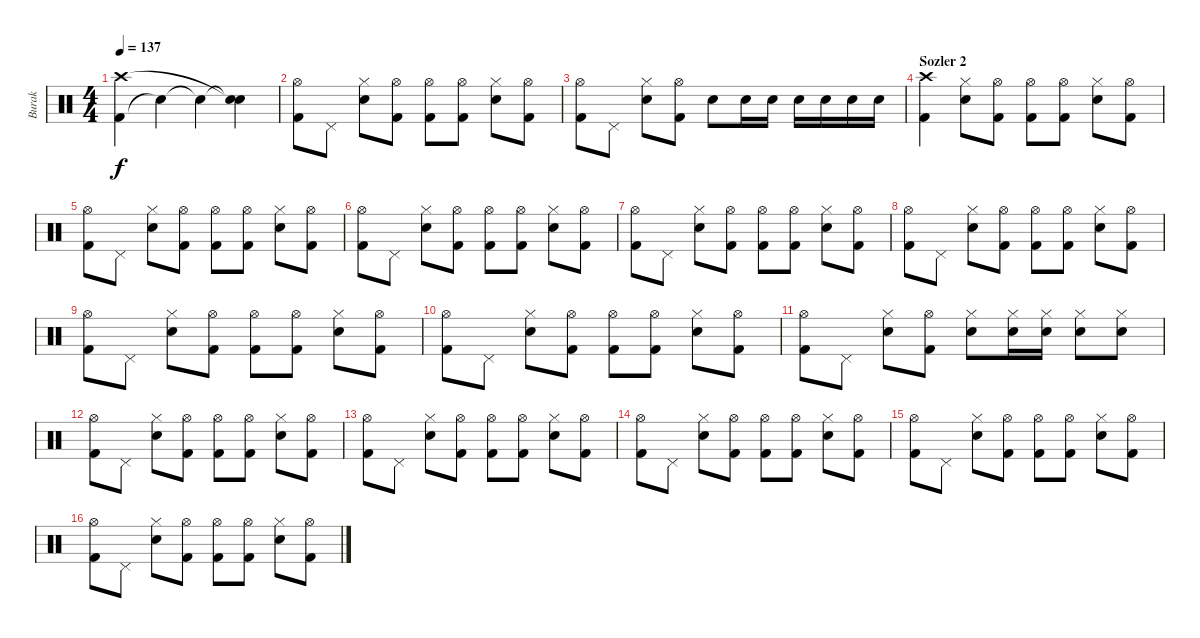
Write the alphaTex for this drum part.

\track ("Burak" "Burak") {instrument percussion}
\staff {score}
\articulation defaults
\ts (4 4)
\tempo 137
\clef neutral
\ks c
("Kick (hit) 2" "Crash high (hit)").4{dy f} "Snare (hit)"{t}.4 "Snare (hit)"{t}.4 ("Snare (hit)"{t} "Snare (hit)"{t}).4 |
("Kick (hit) 2" "Hi-Hat (open)").8 "Pedal Hi-Hat (hit)".8 ("Electric Snare (hit)" "Hi-Hat (closed)").8 ("Kick (hit) 2" "Hi-Hat (open)").8 ("Kick (hit) 2" "Hi-Hat (open)").8 ("Kick (hit) 2" "Hi-Hat (open)").8 ("Electric Snare (hit)" "Hi-Hat (closed)").8 ("Kick (hit) 2" "Hi-Hat (open)").8 |
("Kick (hit) 2" "Hi-Hat (open)").8 "Pedal Hi-Hat (hit)".8 ("Electric Snare (hit)" "Hi-Hat (closed)").8 ("Kick (hit) 2" "Hi-Hat (open)").8 "Electric Snare (hit)".8 "Electric Snare (hit)".16 "Electric Snare (hit)".16 "Electric Snare (hit)".16 "Electric Snare (hit)".16 "Electric Snare (hit)".16 "Electric Snare (hit)".16 |
\section ("" "Sozler 2")
("Kick (hit) 2" "Crash high (hit)").4 ("Electric Snare (hit)" "Hi-Hat (closed)").8 ("Kick (hit) 2" "Hi-Hat (open)").8 ("Kick (hit) 2" "Hi-Hat (open)").8 ("Kick (hit) 2" "Hi-Hat (open)").8 ("Electric Snare (hit)" "Hi-Hat (closed)").8 ("Kick (hit) 2" "Hi-Hat (open)").8 |
("Kick (hit) 2" "Hi-Hat (open)").8 "Pedal Hi-Hat (hit)".8 ("Electric Snare (hit)" "Hi-Hat (closed)").8 ("Kick (hit) 2" "Hi-Hat (open)").8 ("Kick (hit) 2" "Hi-Hat (open)").8 ("Kick (hit) 2" "Hi-Hat (open)").8 ("Electric Snare (hit)" "Hi-Hat (closed)").8 ("Kick (hit) 2" "Hi-Hat (open)").8 |
("Kick (hit) 2" "Hi-Hat (open)").8 "Pedal Hi-Hat (hit)".8 ("Electric Snare (hit)" "Hi-Hat (closed)").8 ("Kick (hit) 2" "Hi-Hat (open)").8 ("Kick (hit) 2" "Hi-Hat (open)").8 ("Kick (hit) 2" "Hi-Hat (open)").8 ("Electric Snare (hit)" "Hi-Hat (closed)").8 ("Kick (hit) 2" "Hi-Hat (open)").8 |
("Kick (hit) 2" "Hi-Hat (open)").8 "Pedal Hi-Hat (hit)".8 ("Electric Snare (hit)" "Hi-Hat (closed)").8 ("Kick (hit) 2" "Hi-Hat (open)").8 ("Kick (hit) 2" "Hi-Hat (open)").8 ("Kick (hit) 2" "Hi-Hat (open)").8 ("Electric Snare (hit)" "Hi-Hat (closed)").8 ("Kick (hit) 2" "Hi-Hat (open)").8 |
("Kick (hit) 2" "Hi-Hat (open)").8 "Pedal Hi-Hat (hit)".8 ("Electric Snare (hit)" "Hi-Hat (closed)").8 ("Kick (hit) 2" "Hi-Hat (open)").8 ("Kick (hit) 2" "Hi-Hat (open)").8 ("Kick (hit) 2" "Hi-Hat (open)").8 ("Electric Snare (hit)" "Hi-Hat (closed)").8 ("Kick (hit) 2" "Hi-Hat (open)").8 |
("Kick (hit) 2" "Hi-Hat (open)").8 "Pedal Hi-Hat (hit)".8 ("Electric Snare (hit)" "Hi-Hat (closed)").8 ("Kick (hit) 2" "Hi-Hat (open)").8 ("Kick (hit) 2" "Hi-Hat (open)").8 ("Kick (hit) 2" "Hi-Hat (open)").8 ("Electric Snare (hit)" "Hi-Hat (closed)").8 ("Kick (hit) 2" "Hi-Hat (open)").8 |
("Kick (hit) 2" "Hi-Hat (open)").8 "Pedal Hi-Hat (hit)".8 ("Electric Snare (hit)" "Hi-Hat (closed)").8 ("Kick (hit) 2" "Hi-Hat (open)").8 ("Kick (hit) 2" "Hi-Hat (open)").8 ("Kick (hit) 2" "Hi-Hat (open)").8 ("Electric Snare (hit)" "Hi-Hat (closed)").8 ("Kick (hit) 2" "Hi-Hat (open)").8 |
("Kick (hit) 2" "Hi-Hat (open)").8 "Pedal Hi-Hat (hit)".8 ("Electric Snare (hit)" "Hi-Hat (closed)").8 ("Kick (hit) 2" "Hi-Hat (open)").8 ("Electric Snare (hit)" "Hi-Hat (closed)").8 ("Electric Snare (hit)" "Hi-Hat (closed)").16 ("Electric Snare (hit)" "Hi-Hat (closed)").16 ("Electric Snare (hit)" "Hi-Hat (closed)").8 ("Electric Snare (hit)" "Hi-Hat (closed)").8 |
("Kick (hit) 2" "Hi-Hat (open)").8 "Pedal Hi-Hat (hit)".8 ("Electric Snare (hit)" "Hi-Hat (closed)").8 ("Kick (hit) 2" "Hi-Hat (open)").8 ("Kick (hit) 2" "Hi-Hat (open)").8 ("Kick (hit) 2" "Hi-Hat (open)").8 ("Electric Snare (hit)" "Hi-Hat (closed)").8 ("Kick (hit) 2" "Hi-Hat (open)").8 |
("Kick (hit) 2" "Hi-Hat (open)").8 "Pedal Hi-Hat (hit)".8 ("Electric Snare (hit)" "Hi-Hat (closed)").8 ("Kick (hit) 2" "Hi-Hat (open)").8 ("Kick (hit) 2" "Hi-Hat (open)").8 ("Kick (hit) 2" "Hi-Hat (open)").8 ("Electric Snare (hit)" "Hi-Hat (closed)").8 ("Kick (hit) 2" "Hi-Hat (open)").8 |
("Kick (hit) 2" "Hi-Hat (open)").8 "Pedal Hi-Hat (hit)".8 ("Electric Snare (hit)" "Hi-Hat (closed)").8 ("Kick (hit) 2" "Hi-Hat (open)").8 ("Kick (hit) 2" "Hi-Hat (open)").8 ("Kick (hit) 2" "Hi-Hat (open)").8 ("Electric Snare (hit)" "Hi-Hat (closed)").8 ("Kick (hit) 2" "Hi-Hat (open)").8 |
("Kick (hit) 2" "Hi-Hat (open)").8 "Pedal Hi-Hat (hit)".8 ("Electric Snare (hit)" "Hi-Hat (closed)").8 ("Kick (hit) 2" "Hi-Hat (open)").8 ("Kick (hit) 2" "Hi-Hat (open)").8 ("Kick (hit) 2" "Hi-Hat (open)").8 ("Electric Snare (hit)" "Hi-Hat (closed)").8 ("Kick (hit) 2" "Hi-Hat (open)").8 |
("Kick (hit) 2" "Hi-Hat (open)").8 "Pedal Hi-Hat (hit)".8 ("Electric Snare (hit)" "Hi-Hat (closed)").8 ("Kick (hit) 2" "Hi-Hat (open)").8 ("Kick (hit) 2" "Hi-Hat (open)").8 ("Kick (hit) 2" "Hi-Hat (open)").8 ("Electric Snare (hit)" "Hi-Hat (closed)").8 ("Kick (hit) 2" "Hi-Hat (open)").8
